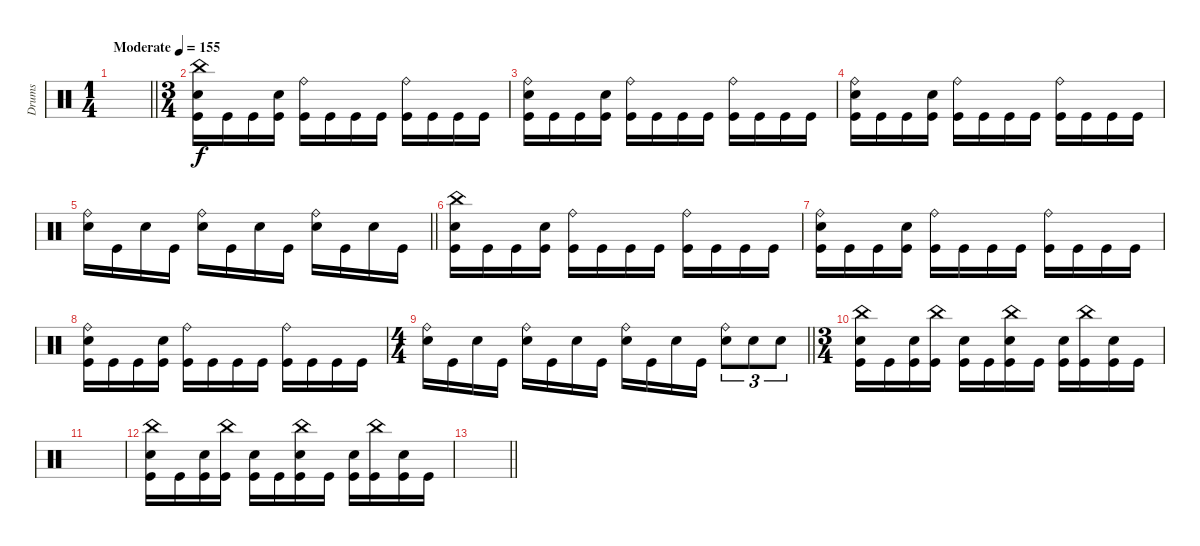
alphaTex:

\track ("Drums" "Drums") {instrument percussion}
\staff
\articulation defaults
\ts (1 4)
\tempo (155 "Moderate")
\clef neutral
\barLineRight lightlight
\ks c
|
\ts (3 4)
("China (hit)" "Electric Snare (hit)" "Kick (hit)").16 "Kick (hit)".16 "Kick (hit)".16 ("Electric Snare (hit)" "Kick (hit)").16 ("Ride (bell)" "Kick (hit)").16 "Kick (hit)".16 "Kick (hit)".16 "Kick (hit)".16 ("Ride (bell)" "Kick (hit)").16 "Kick (hit)".16 "Kick (hit)".16 "Kick (hit)".16 |
("Ride (bell)" "Electric Snare (hit)" "Kick (hit)").16 "Kick (hit)".16 "Kick (hit)".16 ("Electric Snare (hit)" "Kick (hit)").16 ("Ride (bell)" "Kick (hit)").16 "Kick (hit)".16 "Kick (hit)".16 "Kick (hit)".16 ("Ride (bell)" "Kick (hit)").16 "Kick (hit)".16 "Kick (hit)".16 "Kick (hit)".16 |
("Ride (bell)" "Electric Snare (hit)" "Kick (hit)").16 "Kick (hit)".16 "Kick (hit)".16 ("Electric Snare (hit)" "Kick (hit)").16 ("Ride (bell)" "Kick (hit)").16 "Kick (hit)".16 "Kick (hit)".16 "Kick (hit)".16 ("Ride (bell)" "Kick (hit)").16 "Kick (hit)".16 "Kick (hit)".16 "Kick (hit)".16 |
\barLineRight lightlight
("Ride (bell)" "Electric Snare (hit)").16 "Kick (hit)".16 "Electric Snare (hit)".16 "Kick (hit)".16 ("Ride (bell)" "Electric Snare (hit)").16 "Kick (hit)".16 "Electric Snare (hit)".16 "Kick (hit)".16 ("Ride (bell)" "Electric Snare (hit)").16 "Kick (hit)".16 "Electric Snare (hit)".16 "Kick (hit)".16 |
("China (hit)" "Electric Snare (hit)" "Kick (hit)").16 "Kick (hit)".16 "Kick (hit)".16 ("Electric Snare (hit)" "Kick (hit)").16 ("Ride (bell)" "Kick (hit)").16 "Kick (hit)".16 "Kick (hit)".16 "Kick (hit)".16 ("Ride (bell)" "Kick (hit)").16 "Kick (hit)".16 "Kick (hit)".16 "Kick (hit)".16 |
("Ride (bell)" "Electric Snare (hit)" "Kick (hit)").16 "Kick (hit)".16 "Kick (hit)".16 ("Electric Snare (hit)" "Kick (hit)").16 ("Ride (bell)" "Kick (hit)").16 "Kick (hit)".16 "Kick (hit)".16 "Kick (hit)".16 ("Ride (bell)" "Kick (hit)").16 "Kick (hit)".16 "Kick (hit)".16 "Kick (hit)".16 |
("Ride (bell)" "Electric Snare (hit)" "Kick (hit)").16 "Kick (hit)".16 "Kick (hit)".16 ("Electric Snare (hit)" "Kick (hit)").16 ("Ride (bell)" "Kick (hit)").16 "Kick (hit)".16 "Kick (hit)".16 "Kick (hit)".16 ("Ride (bell)" "Kick (hit)").16 "Kick (hit)".16 "Kick (hit)".16 "Kick (hit)".16 |
\ts (4 4)
\barLineRight lightlight
("Ride (bell)" "Electric Snare (hit)").16 "Kick (hit)".16 "Electric Snare (hit)".16 "Kick (hit)".16 ("Ride (bell)" "Electric Snare (hit)").16 "Kick (hit)".16 "Electric Snare (hit)".16 "Kick (hit)".16 ("Ride (bell)" "Electric Snare (hit)").16 "Kick (hit)".16 "Electric Snare (hit)".16 "Kick (hit)".16 ("Ride (bell)" "Electric Snare (hit)").8{tu (3 2)} "Electric Snare (hit)".8{tu (3 2)} "Electric Snare (hit)".8{tu (3 2)} |
\ts (3 4)
("China (hit)" "Electric Snare (hit)" "Kick (hit)").16 "Kick (hit)".16 ("Electric Snare (hit)" "Kick (hit)").16 ("China (hit)" "Kick (hit)").16 ("Electric Snare (hit)" "Kick (hit)").16 "Kick (hit)".16 ("China (hit)" "Electric Snare (hit)" "Kick (hit)").16 "Kick (hit)".16 ("Electric Snare (hit)" "Kick (hit)").16 ("China (hit)" "Kick (hit)").16 ("Electric Snare (hit)" "Kick (hit)").16 "Kick (hit)".16 |
|
("China (hit)" "Electric Snare (hit)" "Kick (hit)").16 "Kick (hit)".16 ("Electric Snare (hit)" "Kick (hit)").16 ("China (hit)" "Kick (hit)").16 ("Electric Snare (hit)" "Kick (hit)").16 "Kick (hit)".16 ("China (hit)" "Electric Snare (hit)" "Kick (hit)").16 "Kick (hit)".16 ("Electric Snare (hit)" "Kick (hit)").16 ("China (hit)" "Kick (hit)").16 ("Electric Snare (hit)" "Kick (hit)").16 "Kick (hit)".16 |
\barLineRight lightlight
